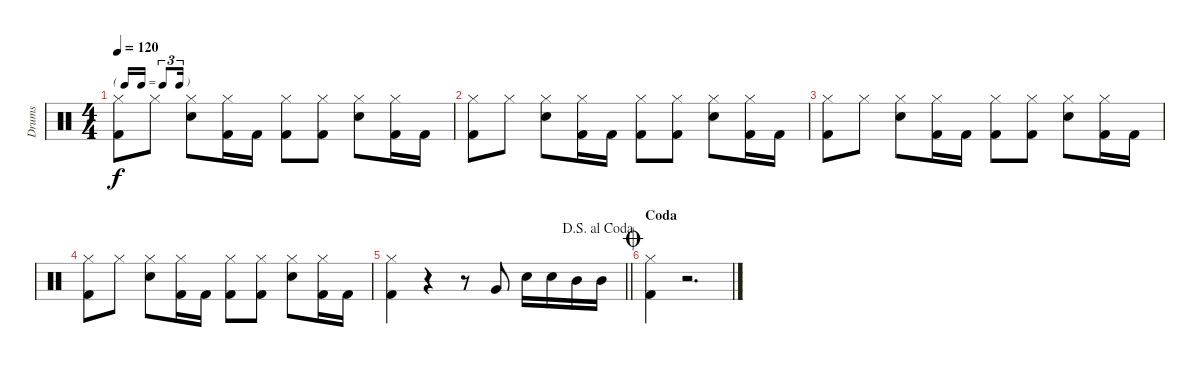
\track ("Drums" "Drums") {instrument percussion}
\staff {score}
\articulation defaults
\ts (4 4)
\tf triplet16th
\tempo 120
\clef neutral
\ks c
("Hi-Hat (closed)" "Kick (hit) 2").8{dy f} "Hi-Hat (closed)".8 ("Hi-Hat (closed)" "Snare (hit) 2").8 ("Hi-Hat (closed)" "Kick (hit) 2").16 "Kick (hit) 2".16 ("Hi-Hat (closed)" "Kick (hit) 2").8 ("Hi-Hat (closed)" "Kick (hit) 2").8 ("Hi-Hat (closed)" "Snare (hit) 2").8 ("Hi-Hat (closed)" "Kick (hit) 2").16 "Kick (hit) 2".16 |
("Hi-Hat (closed)" "Kick (hit) 2").8 "Hi-Hat (closed)".8 ("Hi-Hat (closed)" "Snare (hit) 2").8 ("Hi-Hat (closed)" "Kick (hit) 2").16 "Kick (hit) 2".16 ("Hi-Hat (closed)" "Kick (hit) 2").8 ("Hi-Hat (closed)" "Kick (hit) 2").8 ("Hi-Hat (closed)" "Snare (hit) 2").8 ("Hi-Hat (closed)" "Kick (hit) 2").16 "Kick (hit) 2".16 |
("Hi-Hat (closed)" "Kick (hit) 2").8 "Hi-Hat (closed)".8 ("Hi-Hat (closed)" "Snare (hit) 2").8 ("Hi-Hat (closed)" "Kick (hit) 2").16 "Kick (hit) 2".16 ("Hi-Hat (closed)" "Kick (hit) 2").8 ("Hi-Hat (closed)" "Kick (hit) 2").8 ("Hi-Hat (closed)" "Snare (hit) 2").8 ("Hi-Hat (closed)" "Kick (hit) 2").16 "Kick (hit) 2".16 |
("Hi-Hat (closed)" "Kick (hit) 2").8 "Hi-Hat (closed)".8 ("Hi-Hat (closed)" "Snare (hit) 2").8 ("Hi-Hat (closed)" "Kick (hit) 2").16 "Kick (hit) 2".16 ("Hi-Hat (closed)" "Kick (hit) 2").8 ("Hi-Hat (closed)" "Kick (hit) 2").8 ("Hi-Hat (closed)" "Snare (hit) 2").8 ("Hi-Hat (closed)" "Kick (hit) 2").16 "Kick (hit) 2".16 |
\jump dalsegnoalcoda
\barLineRight lightlight
("Hi-Hat (closed)" "Kick (hit) 2").4 r.4 r.8 "Very Low Tom (hit)".8 "Snare (hit) 2".16 "Snare (hit) 2".16 "Mid Tom (hit)".16 "Mid Tom (hit)".16 |
\section ("" "Coda")
\jump coda
("Hi-Hat (closed)" "Kick (hit) 2").4 r.2{d}
